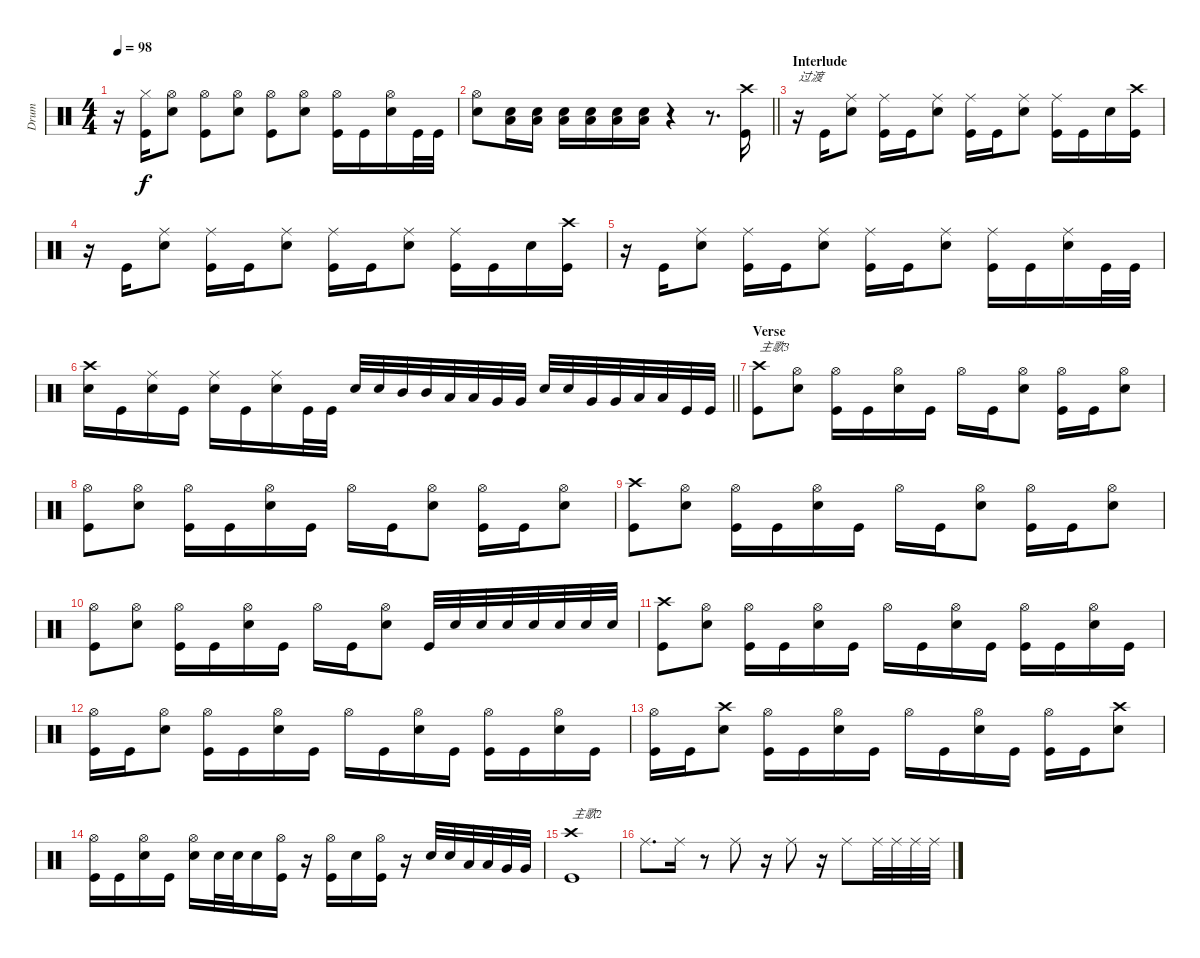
\track ("Drum" "Drum") {instrument percussion}
\staff {score}
\articulation defaults
\ts (4 4)
\tempo 98
\clef neutral
\ks c
r.16{dy f} ("Kick (hit)" "Hi-Hat (closed)").16 ("Snare (hit) 2" "Hi-Hat (open)").8 ("Hi-Hat (open)" "Kick (hit)").8 ("Snare (hit) 2" "Hi-Hat (open)").8 ("Hi-Hat (open)" "Kick (hit)").8 ("Snare (hit) 2" "Hi-Hat (open)").8 ("Hi-Hat (open)" "Kick (hit)").16 "Kick (hit)".16 ("Snare (hit) 2" "Hi-Hat (open)").16 "Kick (hit)".32 "Kick (hit)".32 |
\barLineRight lightlight
("Snare (hit) 2" "Hi-Hat (open)").8 ("Snare (hit) 2" "Low Floor Tom (hit)").16 ("Snare (hit) 2" "Low Floor Tom (hit)").16 ("Snare (hit) 2" "Low Floor Tom (hit)").16 ("Snare (hit) 2" "Low Floor Tom (hit)").16 ("Snare (hit) 2" "Low Floor Tom (hit)").16 ("Snare (hit) 2" "Low Floor Tom (hit)").16 r.4 r.8{d} ("Kick (hit)" "Crash high (hit)").16 |
\section ("" "Interlude")
r.16{txt "过渡"} "Kick (hit)".16 ("Snare (hit) 2" "Ride (middle)").8 ("Kick (hit)" "Ride (middle)").16 "Kick (hit)".16 ("Snare (hit) 2" "Ride (middle)").8 ("Ride (middle)" "Kick (hit)").16 "Kick (hit)".16 ("Snare (hit) 2" "Ride (middle)").8 ("Ride (middle)" "Kick (hit)").16 "Kick (hit)".16 "Snare (hit) 2".16 ("Crash high (hit)" "Kick (hit)").16 |
r.16 "Kick (hit)".16 ("Snare (hit) 2" "Ride (middle)").8 ("Kick (hit)" "Ride (middle)").16 "Kick (hit)".16 ("Snare (hit) 2" "Ride (middle)").8 ("Ride (middle)" "Kick (hit)").16 "Kick (hit)".16 ("Snare (hit) 2" "Ride (middle)").8 ("Ride (middle)" "Kick (hit)").16 "Kick (hit)".16 "Snare (hit) 2".16 ("Crash high (hit)" "Kick (hit)").16 |
r.16 "Kick (hit)".16 ("Snare (hit) 2" "Ride (middle)").8 ("Kick (hit)" "Ride (middle)").16 "Kick (hit)".16 ("Snare (hit) 2" "Ride (middle)").8 ("Ride (middle)" "Kick (hit)").16 "Kick (hit)".16 ("Snare (hit) 2" "Ride (middle)").8 ("Ride (middle)" "Kick (hit)").16 "Kick (hit)".16 ("Snare (hit) 2" "Ride (middle)").16 "Kick (hit)".32 "Kick (hit)".32 |
\barLineRight lightlight
("Crash high (hit)" "Snare (hit) 2").16 "Kick (hit)".16 ("Snare (hit) 2" "Ride (middle)").16 "Kick (hit)".16 ("Snare (hit) 2" "Ride (middle)").16 "Kick (hit)".16 ("Snare (hit) 2" "Ride (middle)").16 "Kick (hit)".32 "Kick (hit)".32 "Snare (hit) 2".32 "Snare (hit) 2".32 "Mid Tom (hit)".32 "Mid Tom (hit)".32 "Low Tom (hit)".32 "Low Tom (hit)".32 "Very Low Tom (hit)".32 "Very Low Tom (hit)".32 "Snare (hit) 2".32 "Snare (hit) 2".32 "Very Low Tom (hit)".32 "Very Low Tom (hit)".32 "Low Floor Tom (hit)".32 "Low Floor Tom (hit)".32 "Kick (hit)".32 "Kick (hit)".32 |
\section ("" "Verse")
("Crash high (hit)" "Kick (hit)").8{txt "主歌3"} ("Snare (hit) 2" "Hi-Hat (open)").8 ("Kick (hit)" "Hi-Hat (open)").16 "Kick (hit)".16 ("Snare (hit) 2" "Hi-Hat (open)").16 "Kick (hit)".16 "Hi-Hat (open)".16 "Kick (hit)".16 ("Snare (hit) 2" "Hi-Hat (open)").8 ("Kick (hit)" "Hi-Hat (open)").16 "Kick (hit)".16 ("Snare (hit) 2" "Hi-Hat (open)").8 |
("Hi-Hat (open)" "Kick (hit)").8 ("Snare (hit) 2" "Hi-Hat (open)").8 ("Kick (hit)" "Hi-Hat (open)").16 "Kick (hit)".16 ("Snare (hit) 2" "Hi-Hat (open)").16 "Kick (hit)".16 "Hi-Hat (open)".16 "Kick (hit)".16 ("Snare (hit) 2" "Hi-Hat (open)").8 ("Kick (hit)" "Hi-Hat (open)").16 "Kick (hit)".16 ("Snare (hit) 2" "Hi-Hat (open)").8 |
("Crash high (hit)" "Kick (hit)").8 ("Snare (hit) 2" "Hi-Hat (open)").8 ("Kick (hit)" "Hi-Hat (open)").16 "Kick (hit)".16 ("Snare (hit) 2" "Hi-Hat (open)").16 "Kick (hit)".16 "Hi-Hat (open)".16 "Kick (hit)".16 ("Snare (hit) 2" "Hi-Hat (open)").8 ("Kick (hit)" "Hi-Hat (open)").16 "Kick (hit)".16 ("Snare (hit) 2" "Hi-Hat (open)").8 |
("Hi-Hat (open)" "Kick (hit)").8 ("Snare (hit) 2" "Hi-Hat (open)").8 ("Kick (hit)" "Hi-Hat (open)").16 "Kick (hit)".16 ("Snare (hit) 2" "Hi-Hat (open)").16 "Kick (hit)".16 "Hi-Hat (open)".16 "Kick (hit)".16 ("Snare (hit) 2" "Hi-Hat (open)").8 "Kick (hit)".32 "Snare (hit) 2".32 "Snare (hit) 2".32 "Snare (hit) 2".32 "Snare (hit) 2".32 "Snare (hit) 2".32 "Snare (hit) 2".32 "Snare (hit) 2".32 |
("Crash high (hit)" "Kick (hit)").8 ("Snare (hit) 2" "Hi-Hat (open)").8 ("Kick (hit)" "Hi-Hat (open)").16 "Kick (hit)".16 ("Snare (hit) 2" "Hi-Hat (open)").16 "Kick (hit)".16 "Hi-Hat (open)".16 "Kick (hit)".16 ("Snare (hit) 2" "Hi-Hat (open)").16 "Kick (hit)".16 ("Kick (hit)" "Hi-Hat (open)").16 "Kick (hit)".16 ("Snare (hit) 2" "Hi-Hat (open)").16 "Kick (hit)".16 |
("Hi-Hat (open)" "Kick (hit)").16 "Kick (hit)".16 ("Snare (hit) 2" "Hi-Hat (open)").8 ("Kick (hit)" "Hi-Hat (open)").16 "Kick (hit)".16 ("Snare (hit) 2" "Hi-Hat (open)").16 "Kick (hit)".16 "Hi-Hat (open)".16 "Kick (hit)".16 ("Snare (hit) 2" "Hi-Hat (open)").16 "Kick (hit)".16 ("Kick (hit)" "Hi-Hat (open)").16 "Kick (hit)".16 ("Snare (hit) 2" "Hi-Hat (open)").16 "Kick (hit)".16 |
("Hi-Hat (open)" "Kick (hit)").16 "Kick (hit)".16 ("Snare (hit) 2" "Crash high (hit)").8 ("Kick (hit)" "Hi-Hat (open)").16 "Kick (hit)".16 ("Snare (hit) 2" "Hi-Hat (open)").16 "Kick (hit)".16 "Hi-Hat (open)".16 "Kick (hit)".16 ("Snare (hit) 2" "Hi-Hat (open)").16 "Kick (hit)".16 ("Kick (hit)" "Hi-Hat (open)").16 "Kick (hit)".16 ("Snare (hit) 2" "Crash high (hit)").8 |
("Hi-Hat (open)" "Kick (hit)").16 "Kick (hit)".16 ("Snare (hit) 2" "Hi-Hat (open)").16 "Kick (hit)".16 ("Snare (hit) 2" "Hi-Hat (open)").16 "Snare (hit) 2".32 "Snare (hit) 2".32 "Snare (hit) 2".16 ("Hi-Hat (open)" "Kick (hit)").16 r.16 ("Kick (hit)" "Hi-Hat (open)").16 "Snare (hit) 2".16 ("Kick (hit)" "Hi-Hat (open)").16 r.16 "Snare (hit) 2".32 "Snare (hit) 2".32 "Low Tom (hit)".32 "Low Tom (hit)".32 "Very Low Tom (hit)".32 "Very Low Tom (hit)".32 |
("Crash high (hit)" "Kick (hit)").1{txt "主歌2"} |
"Ride (middle)".8{d} "Ride (middle)".16 r.8 "Ride (middle)".8 r.16 "Ride (middle)".8 r.16 "Ride (middle)".8 "Ride (middle)".32 "Ride (middle)".32 "Ride (middle)".32 "Ride (middle)".32
